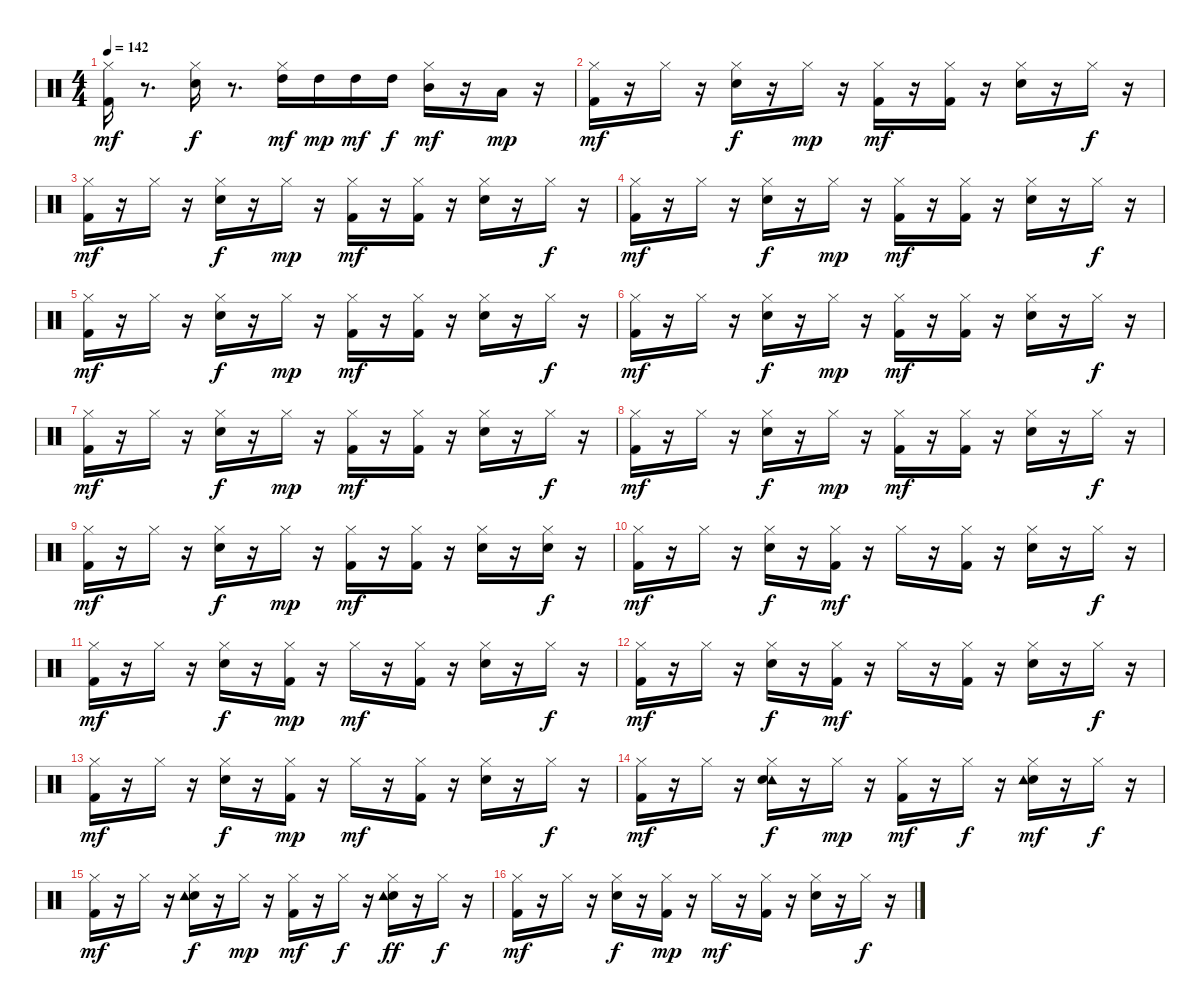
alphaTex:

\track "" {instrument percussion}
\staff {score}
\articulation defaults
\ts (4 4)
\tempo 142
\clef neutral
\ks c
("Hi-Hat (closed)" "Kick (hit) 2").16{dy mf} r.8{d} ("Electric Snare (hit)" "Hi-Hat (closed)").16{dy f} r.8{d} ("High Tom (hit)" "Hi-Hat (closed)").16{dy mf} "High Tom (hit)".16{dy mp} "High Tom (hit)".16{dy mf} "High Tom (hit)".16{dy f} ("Hi-Hat (closed)" "Mid Tom (hit)").16{dy mf} r.16 "Low Tom (hit)".16{dy mp} r.16 |
("Kick (hit) 2" "Hi-Hat (closed)").16{dy mf} r.16 "Hi-Hat (closed)".16 r.16 ("Hi-Hat (closed)" "Electric Snare (hit)").16{dy f} r.16 "Hi-Hat (closed)".16{dy mp} r.16 ("Kick (hit) 2" "Hi-Hat (closed)").16{dy mf} r.16 ("Kick (hit) 2" "Hi-Hat (closed)").16 r.16 ("Hi-Hat (closed)" "Electric Snare (hit)").16 r.16 "Hi-Hat (closed)".16{dy f} r.16 |
("Kick (hit) 2" "Hi-Hat (closed)").16{dy mf} r.16 "Hi-Hat (closed)".16 r.16 ("Electric Snare (hit)" "Hi-Hat (closed)").16{dy f} r.16 "Hi-Hat (closed)".16{dy mp} r.16 ("Kick (hit) 2" "Hi-Hat (closed)").16{dy mf} r.16 ("Kick (hit) 2" "Hi-Hat (closed)").16 r.16 ("Hi-Hat (closed)" "Electric Snare (hit)").16 r.16 "Hi-Hat (closed)".16{dy f} r.16 |
("Hi-Hat (closed)" "Kick (hit) 2").16{dy mf} r.16 "Hi-Hat (closed)".16 r.16 ("Electric Snare (hit)" "Hi-Hat (closed)").16{dy f} r.16 "Hi-Hat (closed)".16{dy mp} r.16 ("Hi-Hat (closed)" "Kick (hit) 2").16{dy mf} r.16 ("Hi-Hat (closed)" "Kick (hit) 2").16 r.16 ("Electric Snare (hit)" "Hi-Hat (closed)").16 r.16 "Hi-Hat (closed)".16{dy f} r.16 |
("Hi-Hat (closed)" "Kick (hit) 2").16{dy mf} r.16 "Hi-Hat (closed)".16 r.16 ("Hi-Hat (closed)" "Electric Snare (hit)").16{dy f} r.16 "Hi-Hat (closed)".16{dy mp} r.16 ("Hi-Hat (closed)" "Kick (hit) 2").16{dy mf} r.16 ("Kick (hit) 2" "Hi-Hat (closed)").16 r.16 ("Hi-Hat (closed)" "Electric Snare (hit)").16 r.16 "Hi-Hat (closed)".16{dy f} r.16 |
("Hi-Hat (closed)" "Kick (hit) 2").16{dy mf} r.16 "Hi-Hat (closed)".16 r.16 ("Electric Snare (hit)" "Hi-Hat (closed)").16{dy f} r.16 "Hi-Hat (closed)".16{dy mp} r.16 ("Kick (hit) 2" "Hi-Hat (closed)").16{dy mf} r.16 ("Kick (hit) 2" "Hi-Hat (closed)").16 r.16 ("Hi-Hat (closed)" "Electric Snare (hit)").16 r.16 "Hi-Hat (closed)".16{dy f} r.16 |
("Kick (hit) 2" "Hi-Hat (closed)").16{dy mf} r.16 "Hi-Hat (closed)".16 r.16 ("Electric Snare (hit)" "Hi-Hat (closed)").16{dy f} r.16 "Hi-Hat (closed)".16{dy mp} r.16 ("Kick (hit) 2" "Hi-Hat (closed)").16{dy mf} r.16 ("Kick (hit) 2" "Hi-Hat (closed)").16 r.16 ("Electric Snare (hit)" "Hi-Hat (closed)").16 r.16 "Hi-Hat (closed)".16{dy f} r.16 |
("Hi-Hat (closed)" "Kick (hit) 2").16{dy mf} r.16 "Hi-Hat (closed)".16 r.16 ("Hi-Hat (closed)" "Electric Snare (hit)").16{dy f} r.16 "Hi-Hat (closed)".16{dy mp} r.16 ("Hi-Hat (closed)" "Kick (hit) 2").16{dy mf} r.16 ("Hi-Hat (closed)" "Kick (hit) 2").16 r.16 ("Hi-Hat (closed)" "Electric Snare (hit)").16 r.16 "Hi-Hat (closed)".16{dy f} r.16 |
("Kick (hit) 2" "Hi-Hat (closed)").16{dy mf} r.16 "Hi-Hat (closed)".16 r.16 ("Electric Snare (hit)" "Hi-Hat (closed)").16{dy f} r.16 "Hi-Hat (closed)".16{dy mp} r.16 ("Kick (hit) 2" "Hi-Hat (closed)").16{dy mf} r.16 ("Hi-Hat (closed)" "Kick (hit) 2").16 r.16 ("Hi-Hat (closed)" "Electric Snare (hit)").16 r.16 ("Electric Snare (hit)" "Hi-Hat (closed)").16{dy f} r.16 |
("Kick (hit) 2" "Hi-Hat (closed)").16{dy mf} r.16 "Hi-Hat (closed)".16 r.16 ("Electric Snare (hit)" "Hi-Hat (closed)").16{dy f} r.16 ("Hi-Hat (closed)" "Kick (hit) 2").16{dy mf} r.16 "Hi-Hat (closed)".16 r.16 ("Kick (hit) 2" "Hi-Hat (closed)").16 r.16 ("Hi-Hat (closed)" "Electric Snare (hit)").16 r.16 "Hi-Hat (closed)".16{dy f} r.16 |
("Hi-Hat (closed)" "Kick (hit) 2").16{dy mf} r.16 "Hi-Hat (closed)".16 r.16 ("Hi-Hat (closed)" "Electric Snare (hit)").16{dy f} r.16 ("Kick (hit) 2" "Hi-Hat (closed)").16{dy mp} r.16 "Hi-Hat (closed)".16{dy mf} r.16 ("Hi-Hat (closed)" "Kick (hit) 2").16 r.16 ("Electric Snare (hit)" "Hi-Hat (closed)").16 r.16 "Hi-Hat (closed)".16{dy f} r.16 |
("Kick (hit) 2" "Hi-Hat (closed)").16{dy mf} r.16 "Hi-Hat (closed)".16 r.16 ("Electric Snare (hit)" "Hi-Hat (closed)").16{dy f} r.16 ("Hi-Hat (closed)" "Kick (hit) 2").16{dy mf} r.16 "Hi-Hat (closed)".16 r.16 ("Hi-Hat (closed)" "Kick (hit) 2").16 r.16 ("Hi-Hat (closed)" "Electric Snare (hit)").16 r.16 "Hi-Hat (closed)".16{dy f} r.16 |
("Kick (hit) 2" "Hi-Hat (closed)").16{dy mf} r.16 "Hi-Hat (closed)".16 r.16 ("Electric Snare (hit)" "Hi-Hat (closed)").16{dy f} r.16 ("Kick (hit) 2" "Hi-Hat (closed)").16{dy mp} r.16 "Hi-Hat (closed)".16{dy mf} r.16 ("Hi-Hat (closed)" "Kick (hit) 2").16 r.16 ("Hi-Hat (closed)" "Electric Snare (hit)").16 r.16 "Hi-Hat (closed)".16{dy f} r.16 |
("Kick (hit) 2" "Hi-Hat (closed)").16{dy mf} r.16 "Hi-Hat (closed)".16 r.16 ("Hi-Hat (closed)" "Tambourine (hit)" "Electric Snare (hit)").16{dy f} r.16 "Hi-Hat (closed)".16{dy mp} r.16 ("Kick (hit) 2" "Hi-Hat (closed)").16{dy mf} r.16 "Hi-Hat (closed)".16{dy f} r.16 ("Electric Snare (hit)" "Tambourine (hit)" "Hi-Hat (closed)").16{dy mf} r.16 "Hi-Hat (closed)".16{dy f} r.16 |
("Hi-Hat (closed)" "Kick (hit) 2").16{dy mf} r.16 "Hi-Hat (closed)".16 r.16 ("Hi-Hat (closed)" "Electric Snare (hit)" "Tambourine (hit)").16{dy f} r.16 "Hi-Hat (closed)".16{dy mp} r.16 ("Kick (hit) 2" "Hi-Hat (closed)").16{dy mf} r.16 "Hi-Hat (closed)".16{dy f} r.16 ("Electric Snare (hit)" "Hi-Hat (closed)" "Tambourine (hit)").16{dy ff} r.16 "Hi-Hat (closed)".16{dy f} r.16 |
("Hi-Hat (closed)" "Kick (hit) 2").16{dy mf} r.16 "Hi-Hat (closed)".16 r.16 ("Hi-Hat (closed)" "Electric Snare (hit)").16{dy f} r.16 ("Kick (hit) 2" "Hi-Hat (closed)").16{dy mp} r.16 "Hi-Hat (closed)".16{dy mf} r.16 ("Hi-Hat (closed)" "Kick (hit) 2").16 r.16 ("Hi-Hat (closed)" "Electric Snare (hit)").16 r.16 "Hi-Hat (closed)".16{dy f} r.16
